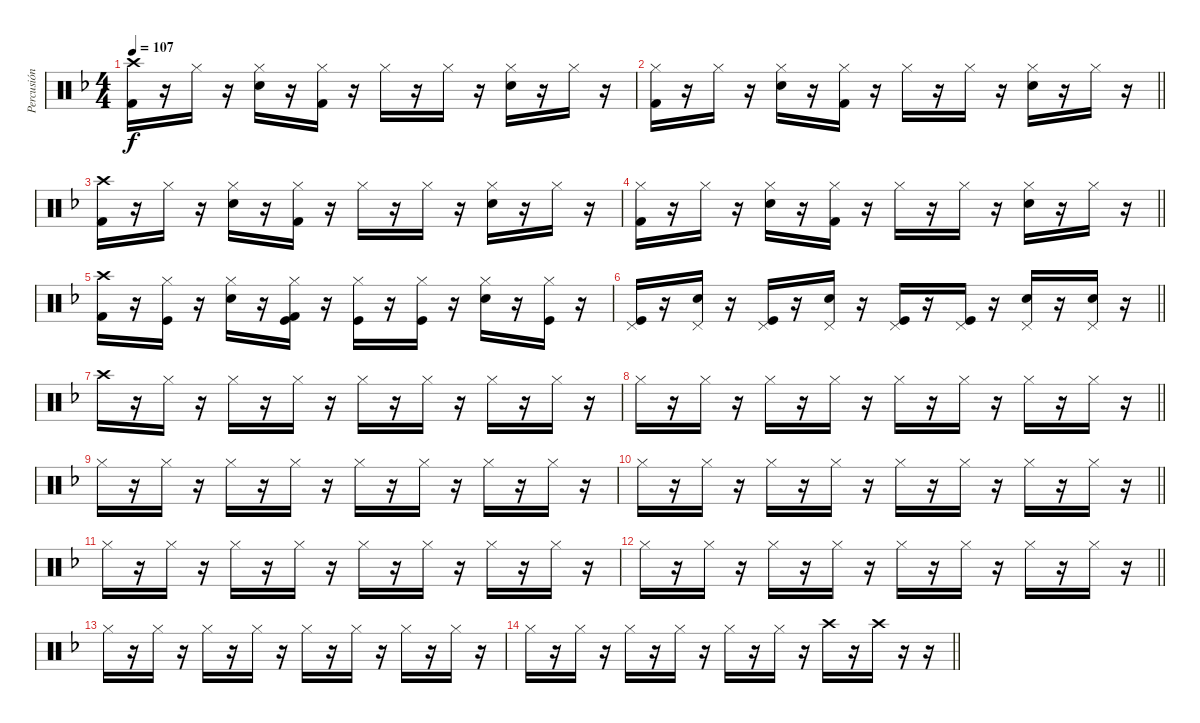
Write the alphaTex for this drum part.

\track ("Percusión" "Percusión") {instrument percussion}
\staff {score}
\articulation defaults
\ts (4 4)
\tempo 107
\clef neutral
\ks f
("Crash high (hit)" "Kick (hit) 2").16{dy f} r.16 "Hi-Hat (closed)".16 r.16 ("Hi-Hat (closed)" "Snare (hit) 2").16 r.16 ("Hi-Hat (closed)" "Kick (hit) 2").16 r.16 "Hi-Hat (closed)".16 r.16 "Hi-Hat (closed)".16 r.16 ("Hi-Hat (closed)" "Snare (hit) 2").16 r.16 "Hi-Hat (closed)".16 r.16 |
\barLineRight lightlight
("Hi-Hat (closed)" "Kick (hit) 2").16 r.16 "Hi-Hat (closed)".16 r.16 ("Hi-Hat (closed)" "Snare (hit) 2").16 r.16 ("Hi-Hat (closed)" "Kick (hit) 2").16 r.16 "Hi-Hat (closed)".16 r.16 "Hi-Hat (closed)".16 r.16 ("Hi-Hat (closed)" "Snare (hit) 2").16 r.16 "Hi-Hat (closed)".16 r.16 |
("Crash high (hit)" "Kick (hit) 2").16 r.16 "Hi-Hat (closed)".16 r.16 ("Hi-Hat (closed)" "Snare (hit) 2").16 r.16 ("Hi-Hat (closed)" "Kick (hit) 2").16 r.16 "Hi-Hat (closed)".16 r.16 "Hi-Hat (closed)".16 r.16 ("Hi-Hat (closed)" "Snare (hit) 2").16 r.16 "Hi-Hat (closed)".16 r.16 |
\barLineRight lightlight
("Hi-Hat (closed)" "Kick (hit) 2").16 r.16 "Hi-Hat (closed)".16 r.16 ("Hi-Hat (closed)" "Snare (hit) 2").16 r.16 ("Hi-Hat (closed)" "Kick (hit) 2").16 r.16 "Hi-Hat (closed)".16 r.16 "Hi-Hat (closed)".16 r.16 ("Hi-Hat (closed)" "Snare (hit) 2").16 r.16 "Hi-Hat (closed)".16 r.16 |
("Crash high (hit)" "Kick (hit) 2").16 r.16 ("Hi-Hat (closed)" "Kick (hit)").16 r.16 ("Hi-Hat (closed)" "Snare (hit) 2").16 r.16 ("Hi-Hat (closed)" "Kick (hit)" "Kick (hit) 2").16 r.16 ("Hi-Hat (closed)" "Kick (hit)").16 r.16 ("Hi-Hat (closed)" "Kick (hit)").16 r.16 ("Hi-Hat (closed)" "Snare (hit) 2").16 r.16 ("Hi-Hat (closed)" "Kick (hit)").16 r.16 |
\barLineRight lightlight
("Pedal Hi-Hat (hit)" "Kick (hit)").16 r.16 ("Pedal Hi-Hat (hit)" "Electric Snare (hit)").16 r.16 ("Pedal Hi-Hat (hit)" "Kick (hit)").16 r.16 ("Pedal Hi-Hat (hit)" "Electric Snare (hit)").16 r.16 ("Pedal Hi-Hat (hit)" "Kick (hit)").16 r.16 ("Pedal Hi-Hat (hit)" "Kick (hit)").16 r.16 ("Pedal Hi-Hat (hit)" "Electric Snare (hit)").16 r.16 ("Pedal Hi-Hat (hit)" "Electric Snare (hit)").16 r.16 |
"Crash high (hit)".16 r.16 "Hi-Hat (closed)".16 r.16 "Hi-Hat (closed)".16 r.16 "Hi-Hat (closed)".16 r.16 "Hi-Hat (closed)".16 r.16 "Hi-Hat (closed)".16 r.16 "Hi-Hat (closed)".16 r.16 "Hi-Hat (closed)".16 r.16 |
\barLineRight lightlight "Hi-Hat (closed)".16
r.16 "Hi-Hat (closed)".16 r.16 "Hi-Hat (closed)".16 r.16 "Hi-Hat (closed)".16 r.16 "Hi-Hat (closed)".16 r.16 "Hi-Hat (closed)".16 r.16 "Hi-Hat (closed)".16 r.16 "Hi-Hat (closed)".16 r.16 |
"Hi-Hat (closed)".16 r.16 "Hi-Hat (closed)".16 r.16 "Hi-Hat (closed)".16 r.16 "Hi-Hat (closed)".16 r.16 "Hi-Hat (closed)".16 r.16 "Hi-Hat (closed)".16 r.16 "Hi-Hat (closed)".16 r.16 "Hi-Hat (closed)".16 r.16 |
\barLineRight lightlight "Hi-Hat (closed)".16
r.16 "Hi-Hat (closed)".16 r.16 "Hi-Hat (closed)".16 r.16 "Hi-Hat (closed)".16 r.16 "Hi-Hat (closed)".16 r.16 "Hi-Hat (closed)".16 r.16 "Hi-Hat (closed)".16 r.16 "Hi-Hat (closed)".16 r.16 |
"Hi-Hat (closed)".16 r.16 "Hi-Hat (closed)".16 r.16 "Hi-Hat (closed)".16 r.16 "Hi-Hat (closed)".16 r.16 "Hi-Hat (closed)".16 r.16 "Hi-Hat (closed)".16 r.16 "Hi-Hat (closed)".16 r.16 "Hi-Hat (closed)".16 r.16 |
\barLineRight lightlight "Hi-Hat (closed)".16
r.16 "Hi-Hat (closed)".16 r.16 "Hi-Hat (closed)".16 r.16 "Hi-Hat (closed)".16 r.16 "Hi-Hat (closed)".16 r.16 "Hi-Hat (closed)".16 r.16 "Hi-Hat (closed)".16 r.16 "Hi-Hat (closed)".16 r.16 |
"Hi-Hat (closed)".16 r.16 "Hi-Hat (closed)".16 r.16 "Hi-Hat (closed)".16 r.16 "Hi-Hat (closed)".16 r.16 "Hi-Hat (closed)".16 r.16 "Hi-Hat (closed)".16 r.16 "Hi-Hat (closed)".16 r.16 "Hi-Hat (closed)".16 r.16 |
\barLineRight lightlight "Hi-Hat (closed)".16
r.16 "Hi-Hat (closed)".16 r.16 "Hi-Hat (closed)".16 r.16 "Hi-Hat (closed)".16 r.16 "Hi-Hat (closed)".16 r.16 "Hi-Hat (closed)".16 r.16 "Crash high (hit)".16 r.16 "Crash high (hit)".16 r.16 r.16
